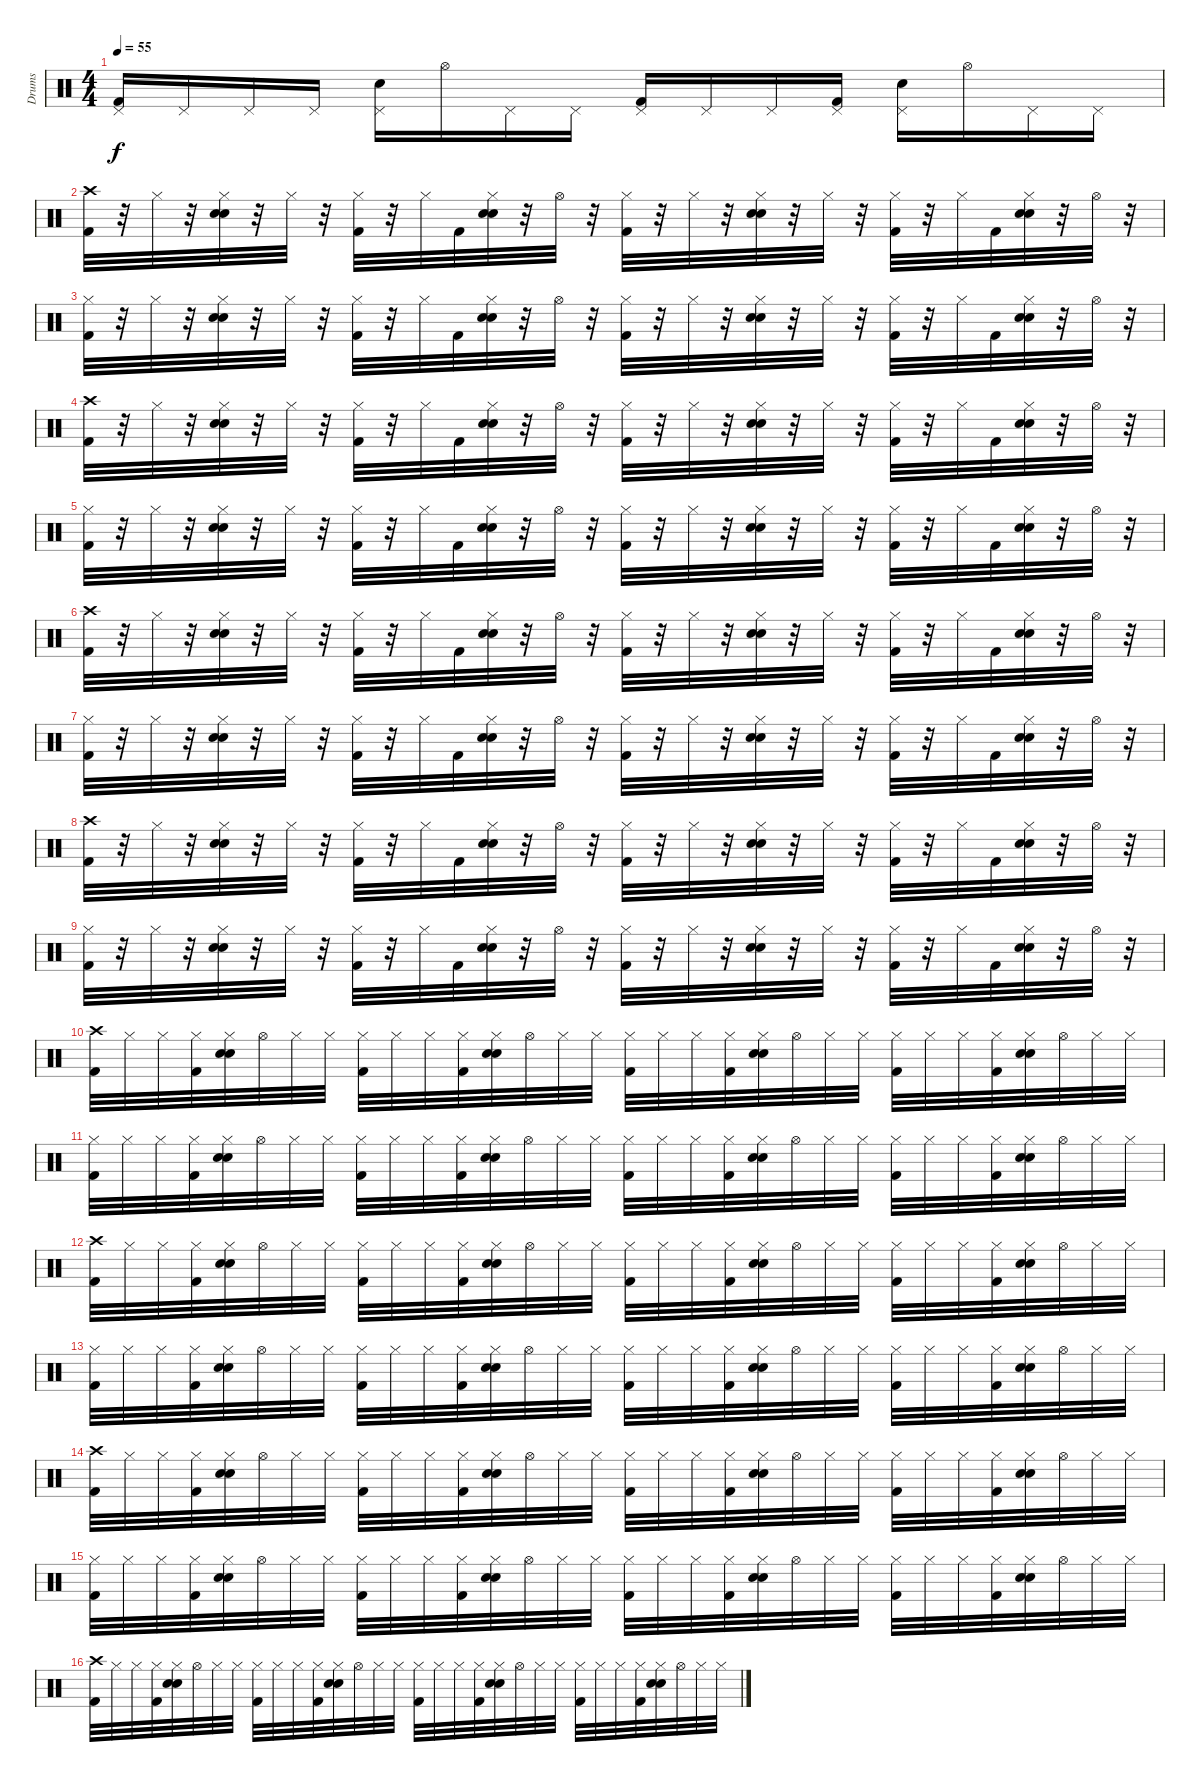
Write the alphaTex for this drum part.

\track ("Drums" "Drums") {instrument percussion}
\staff {score}
\articulation defaults
\ts (4 4)
\tempo 55
\clef neutral
\ks c
("Pedal Hi-Hat (hit)" "Kick (hit) 2").16{dy f} "Pedal Hi-Hat (hit)".16 "Pedal Hi-Hat (hit)".16 "Pedal Hi-Hat (hit)".16 ("Pedal Hi-Hat (hit)" "Electric Snare (hit)").16 "Hi-Hat (open)".16 "Pedal Hi-Hat (hit)".16 "Pedal Hi-Hat (hit)".16 ("Pedal Hi-Hat (hit)" "Kick (hit) 2").16 "Pedal Hi-Hat (hit)".16 "Pedal Hi-Hat (hit)".16 ("Pedal Hi-Hat (hit)" "Kick (hit) 2").16 ("Pedal Hi-Hat (hit)" "Electric Snare (hit)").16 "Hi-Hat (open)".16 "Pedal Hi-Hat (hit)".16 "Pedal Hi-Hat (hit)".16 |
("Crash high (hit)" "Kick (hit) 2").32 r.32 "Hi-Hat (closed)".32 r.32 ("Hi-Hat (closed)" "Snare (hit) 2" "Electric Snare (hit)").32 r.32 "Hi-Hat (closed)".32 r.32 ("Hi-Hat (closed)" "Kick (hit) 2").32 r.32 "Hi-Hat (closed)".32 "Kick (hit) 2".32 ("Hi-Hat (closed)" "Snare (hit) 2" "Electric Snare (hit)").32 r.32 "Hi-Hat (open)".32 r.32 ("Hi-Hat (closed)" "Kick (hit) 2").32 r.32 "Hi-Hat (closed)".32 r.32 ("Hi-Hat (closed)" "Snare (hit) 2" "Electric Snare (hit)").32 r.32 "Hi-Hat (closed)".32 r.32 ("Hi-Hat (closed)" "Kick (hit) 2").32 r.32 "Hi-Hat (closed)".32 "Kick (hit) 2".32 ("Hi-Hat (closed)" "Snare (hit) 2" "Electric Snare (hit)").32 r.32 "Hi-Hat (open)".32 r.32 |
("Hi-Hat (closed)" "Kick (hit) 2").32 r.32 "Hi-Hat (closed)".32 r.32 ("Hi-Hat (closed)" "Snare (hit) 2" "Electric Snare (hit)").32 r.32 "Hi-Hat (closed)".32 r.32 ("Hi-Hat (closed)" "Kick (hit) 2").32 r.32 "Hi-Hat (closed)".32 "Kick (hit) 2".32 ("Hi-Hat (closed)" "Snare (hit) 2" "Electric Snare (hit)").32 r.32 "Hi-Hat (open)".32 r.32 ("Hi-Hat (closed)" "Kick (hit) 2").32 r.32 "Hi-Hat (closed)".32 r.32 ("Hi-Hat (closed)" "Snare (hit) 2" "Electric Snare (hit)").32 r.32 "Hi-Hat (closed)".32 r.32 ("Hi-Hat (closed)" "Kick (hit) 2").32 r.32 "Hi-Hat (closed)".32 "Kick (hit) 2".32 ("Hi-Hat (closed)" "Snare (hit) 2" "Electric Snare (hit)").32 r.32 "Hi-Hat (open)".32 r.32 |
("Crash high (hit)" "Kick (hit) 2").32 r.32 "Hi-Hat (closed)".32 r.32 ("Hi-Hat (closed)" "Snare (hit) 2" "Electric Snare (hit)").32 r.32 "Hi-Hat (closed)".32 r.32 ("Hi-Hat (closed)" "Kick (hit) 2").32 r.32 "Hi-Hat (closed)".32 "Kick (hit) 2".32 ("Hi-Hat (closed)" "Snare (hit) 2" "Electric Snare (hit)").32 r.32 "Hi-Hat (open)".32 r.32 ("Hi-Hat (closed)" "Kick (hit) 2").32 r.32 "Hi-Hat (closed)".32 r.32 ("Hi-Hat (closed)" "Snare (hit) 2" "Electric Snare (hit)").32 r.32 "Hi-Hat (closed)".32 r.32 ("Hi-Hat (closed)" "Kick (hit) 2").32 r.32 "Hi-Hat (closed)".32 "Kick (hit) 2".32 ("Hi-Hat (closed)" "Snare (hit) 2" "Electric Snare (hit)").32 r.32 "Hi-Hat (open)".32 r.32 |
("Hi-Hat (closed)" "Kick (hit) 2").32 r.32 "Hi-Hat (closed)".32 r.32 ("Hi-Hat (closed)" "Snare (hit) 2" "Electric Snare (hit)").32 r.32 "Hi-Hat (closed)".32 r.32 ("Hi-Hat (closed)" "Kick (hit) 2").32 r.32 "Hi-Hat (closed)".32 "Kick (hit) 2".32 ("Hi-Hat (closed)" "Snare (hit) 2" "Electric Snare (hit)").32 r.32 "Hi-Hat (open)".32 r.32 ("Hi-Hat (closed)" "Kick (hit) 2").32 r.32 "Hi-Hat (closed)".32 r.32 ("Hi-Hat (closed)" "Snare (hit) 2" "Electric Snare (hit)").32 r.32 "Hi-Hat (closed)".32 r.32 ("Hi-Hat (closed)" "Kick (hit) 2").32 r.32 "Hi-Hat (closed)".32 "Kick (hit) 2".32 ("Hi-Hat (closed)" "Snare (hit) 2" "Electric Snare (hit)").32 r.32 "Hi-Hat (open)".32 r.32 |
("Crash high (hit)" "Kick (hit) 2").32 r.32 "Hi-Hat (closed)".32 r.32 ("Hi-Hat (closed)" "Snare (hit) 2" "Electric Snare (hit)").32 r.32 "Hi-Hat (closed)".32 r.32 ("Hi-Hat (closed)" "Kick (hit) 2").32 r.32 "Hi-Hat (closed)".32 "Kick (hit) 2".32 ("Hi-Hat (closed)" "Snare (hit) 2" "Electric Snare (hit)").32 r.32 "Hi-Hat (open)".32 r.32 ("Hi-Hat (closed)" "Kick (hit) 2").32 r.32 "Hi-Hat (closed)".32 r.32 ("Hi-Hat (closed)" "Snare (hit) 2" "Electric Snare (hit)").32 r.32 "Hi-Hat (closed)".32 r.32 ("Hi-Hat (closed)" "Kick (hit) 2").32 r.32 "Hi-Hat (closed)".32 "Kick (hit) 2".32 ("Hi-Hat (closed)" "Snare (hit) 2" "Electric Snare (hit)").32 r.32 "Hi-Hat (open)".32 r.32 |
("Hi-Hat (closed)" "Kick (hit) 2").32 r.32 "Hi-Hat (closed)".32 r.32 ("Hi-Hat (closed)" "Snare (hit) 2" "Electric Snare (hit)").32 r.32 "Hi-Hat (closed)".32 r.32 ("Hi-Hat (closed)" "Kick (hit) 2").32 r.32 "Hi-Hat (closed)".32 "Kick (hit) 2".32 ("Hi-Hat (closed)" "Snare (hit) 2" "Electric Snare (hit)").32 r.32 "Hi-Hat (open)".32 r.32 ("Hi-Hat (closed)" "Kick (hit) 2").32 r.32 "Hi-Hat (closed)".32 r.32 ("Hi-Hat (closed)" "Snare (hit) 2" "Electric Snare (hit)").32 r.32 "Hi-Hat (closed)".32 r.32 ("Hi-Hat (closed)" "Kick (hit) 2").32 r.32 "Hi-Hat (closed)".32 "Kick (hit) 2".32 ("Hi-Hat (closed)" "Snare (hit) 2" "Electric Snare (hit)").32 r.32 "Hi-Hat (open)".32 r.32 |
("Crash high (hit)" "Kick (hit) 2").32 r.32 "Hi-Hat (closed)".32 r.32 ("Hi-Hat (closed)" "Snare (hit) 2" "Electric Snare (hit)").32 r.32 "Hi-Hat (closed)".32 r.32 ("Hi-Hat (closed)" "Kick (hit) 2").32 r.32 "Hi-Hat (closed)".32 "Kick (hit) 2".32 ("Hi-Hat (closed)" "Snare (hit) 2" "Electric Snare (hit)").32 r.32 "Hi-Hat (open)".32 r.32 ("Hi-Hat (closed)" "Kick (hit) 2").32 r.32 "Hi-Hat (closed)".32 r.32 ("Hi-Hat (closed)" "Snare (hit) 2" "Electric Snare (hit)").32 r.32 "Hi-Hat (closed)".32 r.32 ("Hi-Hat (closed)" "Kick (hit) 2").32 r.32 "Hi-Hat (closed)".32 "Kick (hit) 2".32 ("Hi-Hat (closed)" "Snare (hit) 2" "Electric Snare (hit)").32 r.32 "Hi-Hat (open)".32 r.32 |
("Hi-Hat (closed)" "Kick (hit) 2").32 r.32 "Hi-Hat (closed)".32 r.32 ("Hi-Hat (closed)" "Snare (hit) 2" "Electric Snare (hit)").32 r.32 "Hi-Hat (closed)".32 r.32 ("Hi-Hat (closed)" "Kick (hit) 2").32 r.32 "Hi-Hat (closed)".32 "Kick (hit) 2".32 ("Hi-Hat (closed)" "Snare (hit) 2" "Electric Snare (hit)").32 r.32 "Hi-Hat (open)".32 r.32 ("Hi-Hat (closed)" "Kick (hit) 2").32 r.32 "Hi-Hat (closed)".32 r.32 ("Hi-Hat (closed)" "Snare (hit) 2" "Electric Snare (hit)").32 r.32 "Hi-Hat (closed)".32 r.32 ("Hi-Hat (closed)" "Kick (hit) 2").32 r.32 "Hi-Hat (closed)".32 "Kick (hit) 2".32 ("Hi-Hat (closed)" "Snare (hit) 2" "Electric Snare (hit)").32 r.32 "Hi-Hat (open)".32 r.32 |
("Crash high (hit)" "Kick (hit) 2").32 "Hi-Hat (closed)".32 "Hi-Hat (closed)".32 ("Hi-Hat (closed)" "Kick (hit) 2").32 ("Hi-Hat (closed)" "Snare (hit) 2" "Electric Snare (hit)").32 "Hi-Hat (open)".32 "Hi-Hat (closed)".32 "Hi-Hat (closed)".32 ("Hi-Hat (closed)" "Kick (hit) 2").32 "Hi-Hat (closed)".32 "Hi-Hat (closed)".32 ("Hi-Hat (closed)" "Kick (hit) 2").32 ("Hi-Hat (closed)" "Snare (hit) 2" "Electric Snare (hit)").32 "Hi-Hat (open)".32 "Hi-Hat (closed)".32 "Hi-Hat (closed)".32 ("Hi-Hat (closed)" "Kick (hit) 2").32 "Hi-Hat (closed)".32 "Hi-Hat (closed)".32 ("Hi-Hat (closed)" "Kick (hit) 2").32 ("Hi-Hat (closed)" "Snare (hit) 2" "Electric Snare (hit)").32 "Hi-Hat (open)".32 "Hi-Hat (closed)".32 "Hi-Hat (closed)".32 ("Hi-Hat (closed)" "Kick (hit) 2").32 "Hi-Hat (closed)".32 "Hi-Hat (closed)".32 ("Hi-Hat (closed)" "Kick (hit) 2").32 ("Hi-Hat (closed)" "Snare (hit) 2" "Electric Snare (hit)").32 "Hi-Hat (open)".32 "Hi-Hat (closed)".32 "Hi-Hat (closed)".32 |
("Hi-Hat (closed)" "Kick (hit) 2").32 "Hi-Hat (closed)".32 "Hi-Hat (closed)".32 ("Hi-Hat (closed)" "Kick (hit) 2").32 ("Hi-Hat (closed)" "Snare (hit) 2" "Electric Snare (hit)").32 "Hi-Hat (open)".32 "Hi-Hat (closed)".32 "Hi-Hat (closed)".32 ("Hi-Hat (closed)" "Kick (hit) 2").32 "Hi-Hat (closed)".32 "Hi-Hat (closed)".32 ("Hi-Hat (closed)" "Kick (hit) 2").32 ("Hi-Hat (closed)" "Snare (hit) 2" "Electric Snare (hit)").32 "Hi-Hat (open)".32 "Hi-Hat (closed)".32 "Hi-Hat (closed)".32 ("Hi-Hat (closed)" "Kick (hit) 2").32 "Hi-Hat (closed)".32 "Hi-Hat (closed)".32 ("Hi-Hat (closed)" "Kick (hit) 2").32 ("Hi-Hat (closed)" "Snare (hit) 2" "Electric Snare (hit)").32 "Hi-Hat (open)".32 "Hi-Hat (closed)".32 "Hi-Hat (closed)".32 ("Hi-Hat (closed)" "Kick (hit) 2").32 "Hi-Hat (closed)".32 "Hi-Hat (closed)".32 ("Hi-Hat (closed)" "Kick (hit) 2").32 ("Hi-Hat (closed)" "Snare (hit) 2" "Electric Snare (hit)").32 "Hi-Hat (open)".32 "Hi-Hat (closed)".32 "Hi-Hat (closed)".32 |
("Crash high (hit)" "Kick (hit) 2").32 "Hi-Hat (closed)".32 "Hi-Hat (closed)".32 ("Hi-Hat (closed)" "Kick (hit) 2").32 ("Hi-Hat (closed)" "Snare (hit) 2" "Electric Snare (hit)").32 "Hi-Hat (open)".32 "Hi-Hat (closed)".32 "Hi-Hat (closed)".32 ("Hi-Hat (closed)" "Kick (hit) 2").32 "Hi-Hat (closed)".32 "Hi-Hat (closed)".32 ("Hi-Hat (closed)" "Kick (hit) 2").32 ("Hi-Hat (closed)" "Snare (hit) 2" "Electric Snare (hit)").32 "Hi-Hat (open)".32 "Hi-Hat (closed)".32 "Hi-Hat (closed)".32 ("Hi-Hat (closed)" "Kick (hit) 2").32 "Hi-Hat (closed)".32 "Hi-Hat (closed)".32 ("Hi-Hat (closed)" "Kick (hit) 2").32 ("Hi-Hat (closed)" "Snare (hit) 2" "Electric Snare (hit)").32 "Hi-Hat (open)".32 "Hi-Hat (closed)".32 "Hi-Hat (closed)".32 ("Hi-Hat (closed)" "Kick (hit) 2").32 "Hi-Hat (closed)".32 "Hi-Hat (closed)".32 ("Hi-Hat (closed)" "Kick (hit) 2").32 ("Hi-Hat (closed)" "Snare (hit) 2" "Electric Snare (hit)").32 "Hi-Hat (open)".32 "Hi-Hat (closed)".32 "Hi-Hat (closed)".32 |
("Hi-Hat (closed)" "Kick (hit) 2").32 "Hi-Hat (closed)".32 "Hi-Hat (closed)".32 ("Hi-Hat (closed)" "Kick (hit) 2").32 ("Hi-Hat (closed)" "Snare (hit) 2" "Electric Snare (hit)").32 "Hi-Hat (open)".32 "Hi-Hat (closed)".32 "Hi-Hat (closed)".32 ("Hi-Hat (closed)" "Kick (hit) 2").32 "Hi-Hat (closed)".32 "Hi-Hat (closed)".32 ("Hi-Hat (closed)" "Kick (hit) 2").32 ("Hi-Hat (closed)" "Snare (hit) 2" "Electric Snare (hit)").32 "Hi-Hat (open)".32 "Hi-Hat (closed)".32 "Hi-Hat (closed)".32 ("Hi-Hat (closed)" "Kick (hit) 2").32 "Hi-Hat (closed)".32 "Hi-Hat (closed)".32 ("Hi-Hat (closed)" "Kick (hit) 2").32 ("Hi-Hat (closed)" "Snare (hit) 2" "Electric Snare (hit)").32 "Hi-Hat (open)".32 "Hi-Hat (closed)".32 "Hi-Hat (closed)".32 ("Hi-Hat (closed)" "Kick (hit) 2").32 "Hi-Hat (closed)".32 "Hi-Hat (closed)".32 ("Hi-Hat (closed)" "Kick (hit) 2").32 ("Hi-Hat (closed)" "Snare (hit) 2" "Electric Snare (hit)").32 "Hi-Hat (open)".32 "Hi-Hat (closed)".32 "Hi-Hat (closed)".32 |
("Crash high (hit)" "Kick (hit) 2").32 "Hi-Hat (closed)".32 "Hi-Hat (closed)".32 ("Hi-Hat (closed)" "Kick (hit) 2").32 ("Hi-Hat (closed)" "Snare (hit) 2" "Electric Snare (hit)").32 "Hi-Hat (open)".32 "Hi-Hat (closed)".32 "Hi-Hat (closed)".32 ("Hi-Hat (closed)" "Kick (hit) 2").32 "Hi-Hat (closed)".32 "Hi-Hat (closed)".32 ("Hi-Hat (closed)" "Kick (hit) 2").32 ("Hi-Hat (closed)" "Snare (hit) 2" "Electric Snare (hit)").32 "Hi-Hat (open)".32 "Hi-Hat (closed)".32 "Hi-Hat (closed)".32 ("Hi-Hat (closed)" "Kick (hit) 2").32 "Hi-Hat (closed)".32 "Hi-Hat (closed)".32 ("Hi-Hat (closed)" "Kick (hit) 2").32 ("Hi-Hat (closed)" "Snare (hit) 2" "Electric Snare (hit)").32 "Hi-Hat (open)".32 "Hi-Hat (closed)".32 "Hi-Hat (closed)".32 ("Hi-Hat (closed)" "Kick (hit) 2").32 "Hi-Hat (closed)".32 "Hi-Hat (closed)".32 ("Hi-Hat (closed)" "Kick (hit) 2").32 ("Hi-Hat (closed)" "Snare (hit) 2" "Electric Snare (hit)").32 "Hi-Hat (open)".32 "Hi-Hat (closed)".32 "Hi-Hat (closed)".32 |
("Hi-Hat (closed)" "Kick (hit) 2").32 "Hi-Hat (closed)".32 "Hi-Hat (closed)".32 ("Hi-Hat (closed)" "Kick (hit) 2").32 ("Hi-Hat (closed)" "Snare (hit) 2" "Electric Snare (hit)").32 "Hi-Hat (open)".32 "Hi-Hat (closed)".32 "Hi-Hat (closed)".32 ("Hi-Hat (closed)" "Kick (hit) 2").32 "Hi-Hat (closed)".32 "Hi-Hat (closed)".32 ("Hi-Hat (closed)" "Kick (hit) 2").32 ("Hi-Hat (closed)" "Snare (hit) 2" "Electric Snare (hit)").32 "Hi-Hat (open)".32 "Hi-Hat (closed)".32 "Hi-Hat (closed)".32 ("Hi-Hat (closed)" "Kick (hit) 2").32 "Hi-Hat (closed)".32 "Hi-Hat (closed)".32 ("Hi-Hat (closed)" "Kick (hit) 2").32 ("Hi-Hat (closed)" "Snare (hit) 2" "Electric Snare (hit)").32 "Hi-Hat (open)".32 "Hi-Hat (closed)".32 "Hi-Hat (closed)".32 ("Hi-Hat (closed)" "Kick (hit) 2").32 "Hi-Hat (closed)".32 "Hi-Hat (closed)".32 ("Hi-Hat (closed)" "Kick (hit) 2").32 ("Hi-Hat (closed)" "Snare (hit) 2" "Electric Snare (hit)").32 "Hi-Hat (open)".32 "Hi-Hat (closed)".32 "Hi-Hat (closed)".32 |
("Crash high (hit)" "Kick (hit) 2").32 "Hi-Hat (closed)".32 "Hi-Hat (closed)".32 ("Hi-Hat (closed)" "Kick (hit) 2").32 ("Hi-Hat (closed)" "Snare (hit) 2" "Electric Snare (hit)").32 "Hi-Hat (open)".32 "Hi-Hat (closed)".32 "Hi-Hat (closed)".32 ("Hi-Hat (closed)" "Kick (hit) 2").32 "Hi-Hat (closed)".32 "Hi-Hat (closed)".32 ("Hi-Hat (closed)" "Kick (hit) 2").32 ("Hi-Hat (closed)" "Snare (hit) 2" "Electric Snare (hit)").32 "Hi-Hat (open)".32 "Hi-Hat (closed)".32 "Hi-Hat (closed)".32 ("Hi-Hat (closed)" "Kick (hit) 2").32 "Hi-Hat (closed)".32 "Hi-Hat (closed)".32 ("Hi-Hat (closed)" "Kick (hit) 2").32 ("Hi-Hat (closed)" "Snare (hit) 2" "Electric Snare (hit)").32 "Hi-Hat (open)".32 "Hi-Hat (closed)".32 "Hi-Hat (closed)".32 ("Hi-Hat (closed)" "Kick (hit) 2").32 "Hi-Hat (closed)".32 "Hi-Hat (closed)".32 ("Hi-Hat (closed)" "Kick (hit) 2").32 ("Hi-Hat (closed)" "Snare (hit) 2" "Electric Snare (hit)").32 "Hi-Hat (open)".32 "Hi-Hat (closed)".32 "Hi-Hat (closed)".32
